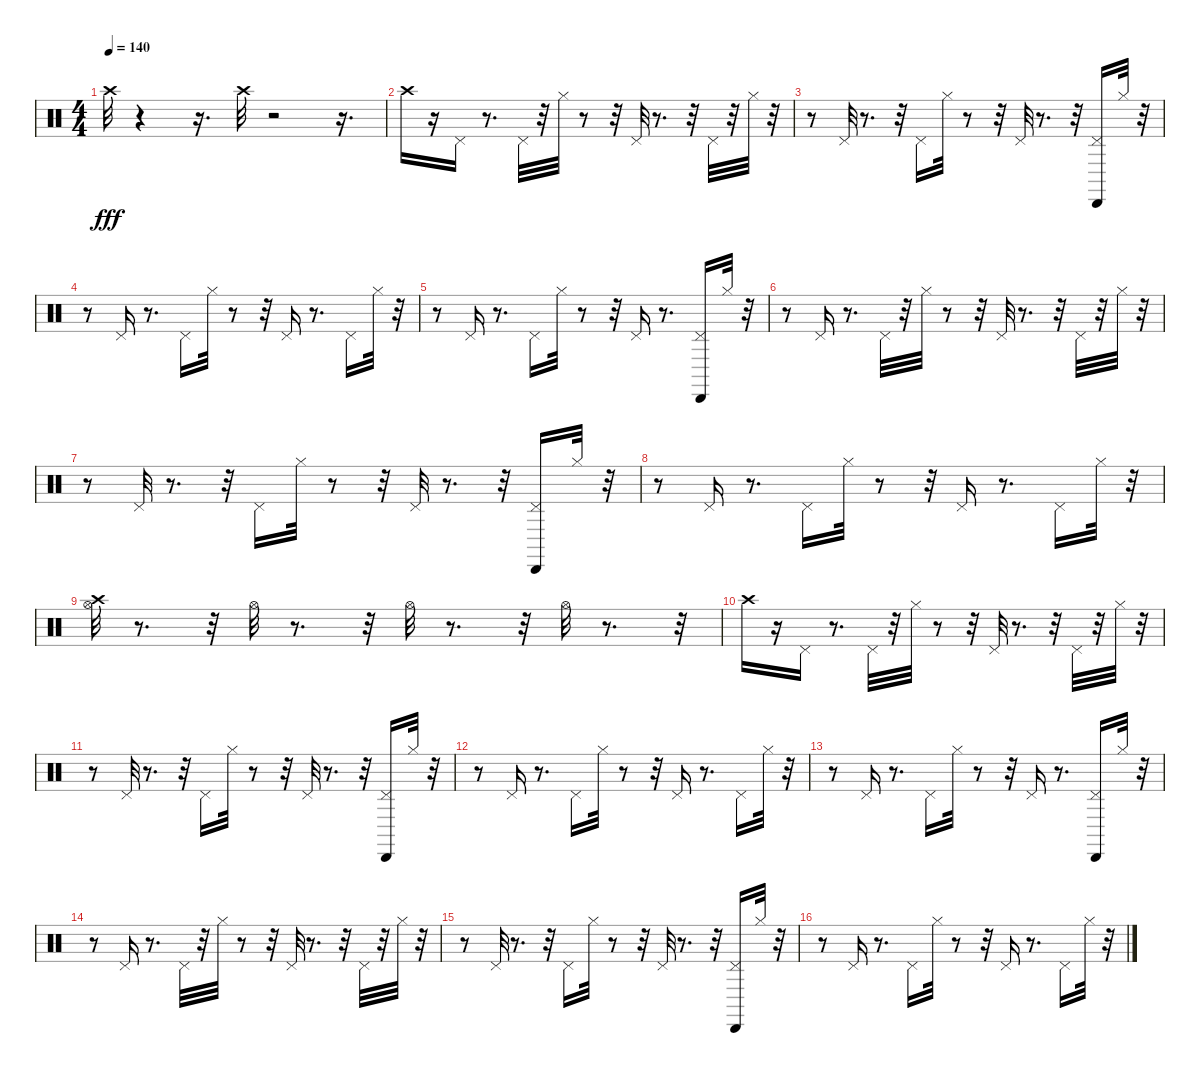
\track "" {instrument percussion}
\staff {score}
\articulation defaults
\ts (4 4)
\tempo 140
\clef neutral
\ks c "Crash high (hit)".32{dy fff}
r.4 r.16{d} "Crash high (hit)".32 r.2 r.16{d} |
"Crash high (hit)".16 r.16 "Pedal Hi-Hat (hit)".16 r.8{d} "Pedal Hi-Hat (hit)".32 r.32 "Hi-Hat (closed)".32 r.8 r.32 "Pedal Hi-Hat (hit)".32 r.8{d} r.32 "Pedal Hi-Hat (hit)".32 r.32 "Hi-Hat (closed)".32 r.32 |
r.8 "Pedal Hi-Hat (hit)".32 r.8{d} r.32 "Pedal Hi-Hat (hit)".16 "Hi-Hat (closed)".32 r.8 r.32 "Pedal Hi-Hat (hit)".32 r.8{d} r.32 ("Cabasa (hit)" "Pedal Hi-Hat (hit)").16 "Hi-Hat (closed)".32 r.32 |
r.8 "Pedal Hi-Hat (hit)".16 r.8{d} "Pedal Hi-Hat (hit)".16 "Hi-Hat (closed)".32 r.8 r.32 "Pedal Hi-Hat (hit)".16 r.8{d} "Pedal Hi-Hat (hit)".16 "Hi-Hat (closed)".32 r.32 |
r.8 "Pedal Hi-Hat (hit)".16 r.8{d} "Pedal Hi-Hat (hit)".16 "Hi-Hat (closed)".32 r.8 r.32 "Pedal Hi-Hat (hit)".16 r.8{d} ("Cabasa (hit)" "Pedal Hi-Hat (hit)").16 "Hi-Hat (closed)".32 r.32 |
r.8 "Pedal Hi-Hat (hit)".16 r.8{d} "Pedal Hi-Hat (hit)".32 r.32 "Hi-Hat (closed)".32 r.8 r.32 "Pedal Hi-Hat (hit)".32 r.8{d} r.32 "Pedal Hi-Hat (hit)".32 r.32 "Hi-Hat (closed)".32 r.32 |
r.8 "Pedal Hi-Hat (hit)".32 r.8{d} r.32 "Pedal Hi-Hat (hit)".16 "Hi-Hat (closed)".32 r.8 r.32 "Pedal Hi-Hat (hit)".32 r.8{d} r.32 ("Cabasa (hit)" "Pedal Hi-Hat (hit)").16 "Hi-Hat (closed)".32 r.32 |
r.8 "Pedal Hi-Hat (hit)".16 r.8{d} "Pedal Hi-Hat (hit)".16 "Hi-Hat (closed)".32 r.8 r.32 "Pedal Hi-Hat (hit)".16 r.8{d} "Pedal Hi-Hat (hit)".16 "Hi-Hat (closed)".32 r.32 |
("Crash high (hit)" "Hi-Hat (open)").32 r.8{d} r.32 "Hi-Hat (open)".32 r.8{d} r.32 "Hi-Hat (open)".32 r.8{d} r.32 "Hi-Hat (open)".32 r.8{d} r.32 |
"Crash high (hit)".16 r.16 "Pedal Hi-Hat (hit)".16 r.8{d} "Pedal Hi-Hat (hit)".32 r.32 "Hi-Hat (closed)".32 r.8 r.32 "Pedal Hi-Hat (hit)".32 r.8{d} r.32 "Pedal Hi-Hat (hit)".32 r.32 "Hi-Hat (closed)".32 r.32 |
r.8 "Pedal Hi-Hat (hit)".32 r.8{d} r.32 "Pedal Hi-Hat (hit)".16 "Hi-Hat (closed)".32 r.8 r.32 "Pedal Hi-Hat (hit)".32 r.8{d} r.32 ("Cabasa (hit)" "Pedal Hi-Hat (hit)").16 "Hi-Hat (closed)".32 r.32 |
r.8 "Pedal Hi-Hat (hit)".16 r.8{d} "Pedal Hi-Hat (hit)".16 "Hi-Hat (closed)".32 r.8 r.32 "Pedal Hi-Hat (hit)".16 r.8{d} "Pedal Hi-Hat (hit)".16 "Hi-Hat (closed)".32 r.32 |
r.8 "Pedal Hi-Hat (hit)".16 r.8{d} "Pedal Hi-Hat (hit)".16 "Hi-Hat (closed)".32 r.8 r.32 "Pedal Hi-Hat (hit)".16 r.8{d} ("Cabasa (hit)" "Pedal Hi-Hat (hit)").16 "Hi-Hat (closed)".32 r.32 |
r.8 "Pedal Hi-Hat (hit)".16 r.8{d} "Pedal Hi-Hat (hit)".32 r.32 "Hi-Hat (closed)".32 r.8 r.32 "Pedal Hi-Hat (hit)".32 r.8{d} r.32 "Pedal Hi-Hat (hit)".32 r.32 "Hi-Hat (closed)".32 r.32 |
r.8 "Pedal Hi-Hat (hit)".32 r.8{d} r.32 "Pedal Hi-Hat (hit)".16 "Hi-Hat (closed)".32 r.8 r.32 "Pedal Hi-Hat (hit)".32 r.8{d} r.32 ("Cabasa (hit)" "Pedal Hi-Hat (hit)").16 "Hi-Hat (closed)".32 r.32 |
r.8 "Pedal Hi-Hat (hit)".16 r.8{d} "Pedal Hi-Hat (hit)".16 "Hi-Hat (closed)".32 r.8 r.32 "Pedal Hi-Hat (hit)".16 r.8{d} "Pedal Hi-Hat (hit)".16 "Hi-Hat (closed)".32 r.32
